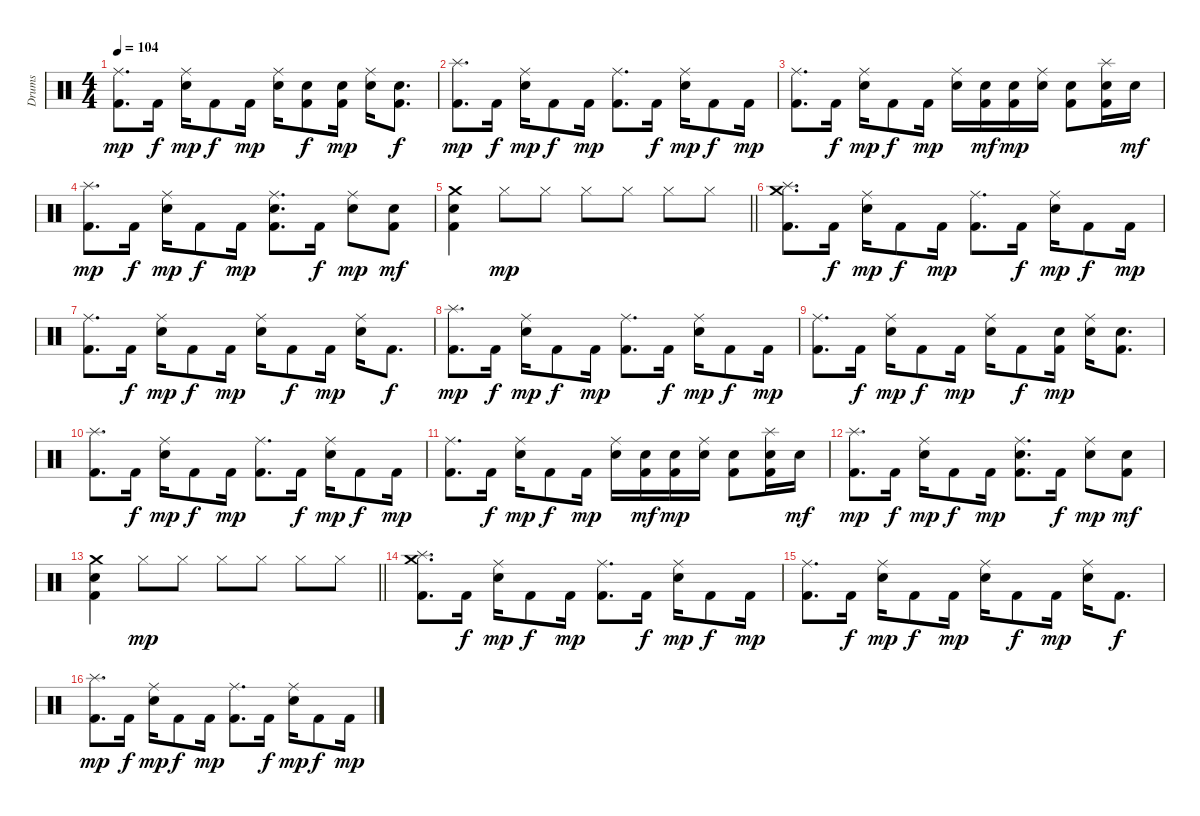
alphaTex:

\track ("Drums" "Drums") {instrument percussion}
\staff {score}
\articulation defaults
\ts (4 4)
\tempo 104
\clef neutral
\ks c
("Ride (middle)" "Kick (hit) 2").8{d dy mp} "Kick (hit) 2".16{dy f} ("Ride (middle)" "Electric Snare (hit)").16{dy mp} "Kick (hit) 2".8{dy f} "Kick (hit) 2".16{dy mp} ("Ride (middle)" "Electric Snare (hit)").16 ("Electric Snare (hit)" "Kick (hit) 2").8{dy f} ("Electric Snare (hit)" "Kick (hit) 2").16{dy mp} ("Ride (middle)" "Electric Snare (hit)").16 ("Electric Snare (hit)" "Kick (hit) 2").8{d dy f} |
("Splash (hit)" "Kick (hit) 2").8{d dy mp} "Kick (hit) 2".16{dy f} ("Ride (middle)" "Electric Snare (hit)").16{dy mp} "Kick (hit) 2".8{dy f} "Kick (hit) 2".16{dy mp} ("Ride (middle)" "Kick (hit) 2").8{d} "Kick (hit) 2".16{dy f} ("Ride (middle)" "Electric Snare (hit)").16{dy mp} "Kick (hit) 2".8{dy f} "Kick (hit) 2".16{dy mp} |
("Ride (middle)" "Kick (hit) 2").8{d} "Kick (hit) 2".16{dy f} ("Ride (middle)" "Electric Snare (hit)").16{dy mp} "Kick (hit) 2".8{dy f} "Kick (hit) 2".16{dy mp} ("Ride (middle)" "Electric Snare (hit)").16 ("Electric Snare (hit)" "Kick (hit) 2").16{dy mf} ("Electric Snare (hit)" "Kick (hit) 2").16{dy mp} ("Ride (middle)" "Electric Snare (hit)").16 ("Electric Snare (hit)" "Kick (hit) 2").8 ("Splash (hit)" "Electric Snare (hit)" "Kick (hit) 2").16 "Electric Snare (hit)".16{dy mf} |
("Splash (hit)" "Kick (hit) 2").8{d dy mp} "Kick (hit) 2".16{dy f} ("Ride (middle)" "Electric Snare (hit)").16{dy mp} "Kick (hit) 2".8{dy f} "Kick (hit) 2".16{dy mp} ("Ride (middle)" "Electric Snare (hit)" "Kick (hit) 2").8{d} "Kick (hit) 2".16{dy f} ("Ride (middle)" "Electric Snare (hit)").8{dy mp} ("Electric Snare (hit)" "Kick (hit) 2").8{dy mf} |
\barLineRight lightlight
("Crash medium (hit)" "Electric Snare (hit)" "Kick (hit) 2").4 "Hi-Hat (closed)".8{dy mp} "Hi-Hat (closed)".8 "Hi-Hat (closed)".8 "Hi-Hat (closed)".8 "Hi-Hat (closed)".8 "Hi-Hat (closed)".8 |
("Splash (hit)" "Crash medium (hit)" "Kick (hit) 2").8{d} "Kick (hit) 2".16{dy f} ("Ride (middle)" "Electric Snare (hit)").16{dy mp} "Kick (hit) 2".8{dy f} "Kick (hit) 2".16{dy mp} ("Ride (middle)" "Kick (hit) 2").8{d} "Kick (hit) 2".16{dy f} ("Ride (middle)" "Electric Snare (hit)").16{dy mp} "Kick (hit) 2".8{dy f} "Kick (hit) 2".16{dy mp} |
("Ride (middle)" "Kick (hit) 2").8{d} "Kick (hit) 2".16{dy f} ("Ride (middle)" "Electric Snare (hit)").16{dy mp} "Kick (hit) 2".8{dy f} "Kick (hit) 2".16{dy mp} ("Ride (middle)" "Electric Snare (hit)").16 "Kick (hit) 2".8{dy f} "Kick (hit) 2".16{dy mp} ("Ride (middle)" "Electric Snare (hit)").16 "Kick (hit) 2".8{d dy f} |
("Splash (hit)" "Kick (hit) 2").8{d dy mp} "Kick (hit) 2".16{dy f} ("Ride (middle)" "Electric Snare (hit)").16{dy mp} "Kick (hit) 2".8{dy f} "Kick (hit) 2".16{dy mp} ("Ride (middle)" "Kick (hit) 2").8{d} "Kick (hit) 2".16{dy f} ("Ride (middle)" "Electric Snare (hit)").16{dy mp} "Kick (hit) 2".8{dy f} "Kick (hit) 2".16{dy mp} |
("Ride (middle)" "Kick (hit) 2").8{d} "Kick (hit) 2".16{dy f} ("Ride (middle)" "Electric Snare (hit)").16{dy mp} "Kick (hit) 2".8{dy f} "Kick (hit) 2".16{dy mp} ("Ride (middle)" "Electric Snare (hit)").16 "Kick (hit) 2".8{dy f} ("Electric Snare (hit)" "Kick (hit) 2").16{dy mp} ("Ride (middle)" "Electric Snare (hit)").16 ("Electric Snare (hit)" "Kick (hit) 2").8{d} |
("Splash (hit)" "Kick (hit) 2").8{d} "Kick (hit) 2".16{dy f} ("Ride (middle)" "Electric Snare (hit)").16{dy mp} "Kick (hit) 2".8{dy f} "Kick (hit) 2".16{dy mp} ("Ride (middle)" "Kick (hit) 2").8{d} "Kick (hit) 2".16{dy f} ("Ride (middle)" "Electric Snare (hit)").16{dy mp} "Kick (hit) 2".8{dy f} "Kick (hit) 2".16{dy mp} |
("Ride (middle)" "Kick (hit) 2").8{d} "Kick (hit) 2".16{dy f} ("Ride (middle)" "Electric Snare (hit)").16{dy mp} "Kick (hit) 2".8{dy f} "Kick (hit) 2".16{dy mp} ("Ride (middle)" "Electric Snare (hit)").16 ("Electric Snare (hit)" "Kick (hit) 2").16{dy mf} ("Electric Snare (hit)" "Kick (hit) 2").16{dy mp} ("Ride (middle)" "Electric Snare (hit)").16 ("Electric Snare (hit)" "Kick (hit) 2").8 ("Splash (hit)" "Electric Snare (hit)" "Kick (hit) 2").16 "Electric Snare (hit)".16{dy mf} |
("Splash (hit)" "Kick (hit) 2").8{d dy mp} "Kick (hit) 2".16{dy f} ("Ride (middle)" "Electric Snare (hit)").16{dy mp} "Kick (hit) 2".8{dy f} "Kick (hit) 2".16{dy mp} ("Ride (middle)" "Electric Snare (hit)" "Kick (hit) 2").8{d} "Kick (hit) 2".16{dy f} ("Ride (middle)" "Electric Snare (hit)").8{dy mp} ("Electric Snare (hit)" "Kick (hit) 2").8{dy mf} |
\barLineRight lightlight
("Crash medium (hit)" "Electric Snare (hit)" "Kick (hit) 2").4 "Hi-Hat (closed)".8{dy mp} "Hi-Hat (closed)".8 "Hi-Hat (closed)".8 "Hi-Hat (closed)".8 "Hi-Hat (closed)".8 "Hi-Hat (closed)".8 |
("Splash (hit)" "Crash medium (hit)" "Kick (hit) 2").8{d volume 0} "Kick (hit) 2".16{dy f} ("Ride (middle)" "Electric Snare (hit)").16{dy mp} "Kick (hit) 2".8{dy f} "Kick (hit) 2".16{dy mp} ("Ride (middle)" "Kick (hit) 2").8{d} "Kick (hit) 2".16{dy f} ("Ride (middle)" "Electric Snare (hit)").16{dy mp} "Kick (hit) 2".8{dy f} "Kick (hit) 2".16{dy mp} |
("Ride (middle)" "Kick (hit) 2").8{d} "Kick (hit) 2".16{dy f} ("Ride (middle)" "Electric Snare (hit)").16{dy mp} "Kick (hit) 2".8{dy f} "Kick (hit) 2".16{dy mp} ("Ride (middle)" "Electric Snare (hit)").16 "Kick (hit) 2".8{dy f} "Kick (hit) 2".16{dy mp} ("Ride (middle)" "Electric Snare (hit)").16 "Kick (hit) 2".8{d dy f} |
("Splash (hit)" "Kick (hit) 2").8{d dy mp} "Kick (hit) 2".16{dy f} ("Ride (middle)" "Electric Snare (hit)").16{dy mp} "Kick (hit) 2".8{dy f} "Kick (hit) 2".16{dy mp} ("Ride (middle)" "Kick (hit) 2").8{d} "Kick (hit) 2".16{dy f} ("Ride (middle)" "Electric Snare (hit)").16{dy mp} "Kick (hit) 2".8{dy f} "Kick (hit) 2".16{dy mp}
